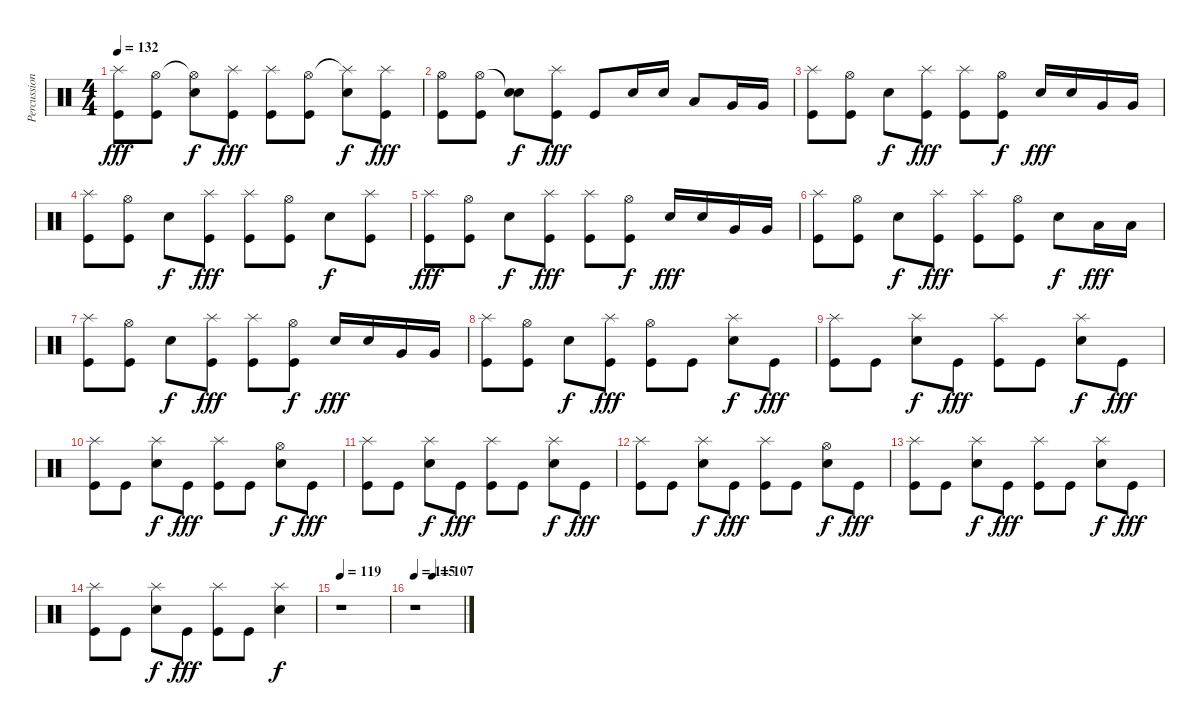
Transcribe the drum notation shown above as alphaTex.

\track ("Percussion" "Percussion") {instrument percussion}
\staff {score}
\articulation defaults
\ts (4 4)
\tempo 132
\clef neutral
\ks c
("Splash (hit)" "Kick (hit)").8{dy fff} ("Hi-Hat (open)" "Kick (hit)").8 ("Hi-Hat (open)"{t} "Snare (hit) 2").8{dy f} ("Splash (hit)" "Kick (hit)").8{dy fff} ("Splash (hit)" "Kick (hit)").8 ("Hi-Hat (open)" "Kick (hit)").8 ("Splash (hit)"{t} "Snare (hit) 2").8{dy f} ("Splash (hit)" "Kick (hit)").8{dy fff} |
("Hi-Hat (open)" "Kick (hit)").8 ("Hi-Hat (open)" "Kick (hit)").8 ("Snare (hit)"{t} "Snare (hit) 2").8{dy f} ("Splash (hit)" "Kick (hit)").8{dy fff} "Kick (hit)".8 "Snare (hit) 2".16 "Snare (hit) 2".16 "Low Tom (hit)".8 "Very Low Tom (hit)".16 "Very Low Tom (hit)".16 |
("Splash (hit)" "Kick (hit)").8 ("Hi-Hat (open)" "Kick (hit)").8 "Snare (hit) 2".8{dy f} ("Splash (hit)" "Kick (hit)").8{dy fff} ("Splash (hit)" "Kick (hit)").8 ("Hi-Hat (open)" "Kick (hit)").8{dy f} "Snare (hit) 2".16{dy fff} "Snare (hit) 2".16 "Very Low Tom (hit)".16 "Very Low Tom (hit)".16 |
("Splash (hit)" "Kick (hit)").8 ("Hi-Hat (open)" "Kick (hit)").8 "Snare (hit) 2".8{dy f} ("Splash (hit)" "Kick (hit)").8{dy fff} ("Splash (hit)" "Kick (hit)").8 ("Hi-Hat (open)" "Kick (hit)").8 "Snare (hit) 2".8{dy f} ("Splash (hit)" "Kick (hit)").8 |
("Splash (hit)" "Kick (hit)").8{dy fff} ("Hi-Hat (open)" "Kick (hit)").8 "Snare (hit) 2".8{dy f} ("Splash (hit)" "Kick (hit)").8{dy fff} ("Splash (hit)" "Kick (hit)").8 ("Hi-Hat (open)" "Kick (hit)").8{dy f} "Snare (hit) 2".16{dy fff} "Snare (hit) 2".16 "Very Low Tom (hit)".16 "Very Low Tom (hit)".16 |
("Splash (hit)" "Kick (hit)").8 ("Hi-Hat (open)" "Kick (hit)").8 "Snare (hit) 2".8{dy f} ("Splash (hit)" "Kick (hit)").8{dy fff} ("Splash (hit)" "Kick (hit)").8 ("Hi-Hat (open)" "Kick (hit)").8 "Snare (hit) 2".8{dy f} "Low Tom (hit)".16{dy fff} "Low Tom (hit)".16 |
("Splash (hit)" "Kick (hit)").8 ("Hi-Hat (open)" "Kick (hit)").8 "Snare (hit) 2".8{dy f} ("Splash (hit)" "Kick (hit)").8{dy fff} ("Splash (hit)" "Kick (hit)").8 ("Hi-Hat (open)" "Kick (hit)").8{dy f} "Snare (hit) 2".16{dy fff} "Snare (hit) 2".16 "Very Low Tom (hit)".16 "Very Low Tom (hit)".16 |
("Splash (hit)" "Kick (hit)").8 ("Hi-Hat (open)" "Kick (hit)").8 "Snare (hit) 2".8{dy f} ("Splash (hit)" "Kick (hit)").8{dy fff} ("Hi-Hat (open)" "Kick (hit)").8 "Kick (hit)".8 ("Splash (hit)" "Snare (hit) 2").8{dy f} "Kick (hit)".8{dy fff} |
("Splash (hit)" "Kick (hit)").8 "Kick (hit)".8 ("Splash (hit)" "Snare (hit) 2").8{dy f} "Kick (hit)".8{dy fff} ("Splash (hit)" "Kick (hit)").8 "Kick (hit)".8 ("Splash (hit)" "Snare (hit) 2").8{dy f} "Kick (hit)".8{dy fff} |
("Splash (hit)" "Kick (hit)").8 "Kick (hit)".8 ("Splash (hit)" "Snare (hit) 2").8{dy f} "Kick (hit)".8{dy fff} ("Splash (hit)" "Kick (hit)").8 "Kick (hit)".8 ("Hi-Hat (open)" "Snare (hit) 2").8{dy f} "Kick (hit)".8{dy fff} |
("Splash (hit)" "Kick (hit)").8 "Kick (hit)".8 ("Splash (hit)" "Snare (hit) 2").8{dy f} "Kick (hit)".8{dy fff} ("Splash (hit)" "Kick (hit)").8 "Kick (hit)".8 ("Splash (hit)" "Snare (hit) 2").8{dy f} "Kick (hit)".8{dy fff} |
("Splash (hit)" "Kick (hit)").8 "Kick (hit)".8 ("Splash (hit)" "Snare (hit) 2").8{dy f} "Kick (hit)".8{dy fff} ("Splash (hit)" "Kick (hit)").8 "Kick (hit)".8 ("Hi-Hat (open)" "Snare (hit) 2").8{dy f} "Kick (hit)".8{dy fff} |
("Splash (hit)" "Kick (hit)").8 "Kick (hit)".8 ("Splash (hit)" "Snare (hit) 2").8{dy f} "Kick (hit)".8{dy fff} ("Splash (hit)" "Kick (hit)").8 "Kick (hit)".8 ("Splash (hit)" "Snare (hit) 2").8{dy f} "Kick (hit)".8{dy fff} |
("Splash (hit)" "Kick (hit)").8 "Kick (hit)".8 ("Splash (hit)" "Snare (hit) 2").8{dy f} "Kick (hit)".8{dy fff} ("Splash (hit)" "Kick (hit)").8 "Kick (hit)".8 ("Splash (hit)" "Snare (hit) 2").4{dy f} |
\tempo 119
r.1 |
\tempo 115
\tempo (107 0.375)
r.1
